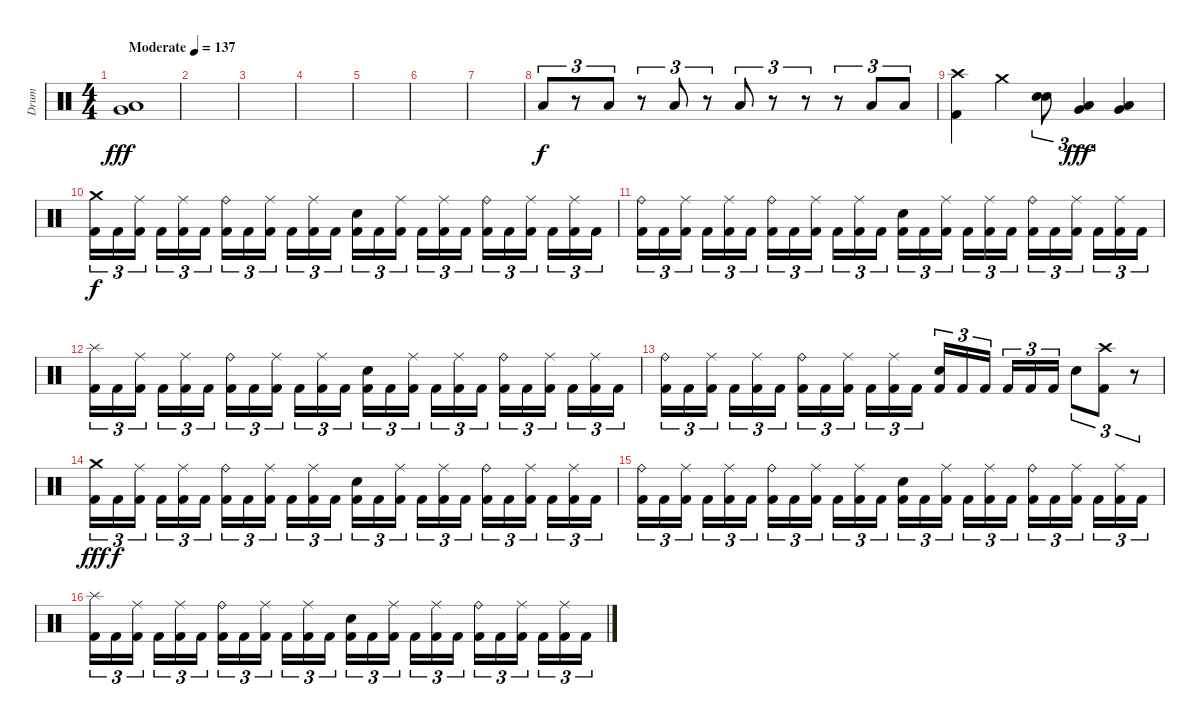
\track ("Drum" "Drum") {instrument percussion}
\staff {score}
\articulation defaults
\ts (4 4)
\tempo (137 "Moderate")
\clef neutral
\ks c
("Very Low Tom (hit)" "Low Floor Tom (hit)").1{dy fff} |
|
|
|
|
|
|
"Low Floor Tom (hit)".8{tu (3 2) dy f} r.8{tu (3 2)} "Low Floor Tom (hit)".8{tu (3 2)} r.8{tu (3 2)} "Low Floor Tom (hit)".8{tu (3 2)} r.8{tu (3 2)} "Low Floor Tom (hit)".8{tu (3 2)} r.8{tu (3 2)} r.8{tu (3 2)} r.8{tu (3 2)} "Low Floor Tom (hit)".8{tu (3 2)} "Low Floor Tom (hit)".8{tu (3 2)} |
("Crash high (hit)" "Kick (hit) 2").4 "Crash medium (hit)".4 ("Electric Snare (hit)" "Electric Snare (hit)").8{tu (3 2)} ("Very Low Tom (hit)" "Low Floor Tom (hit)").4{tu (3 2) dy fff} ("Very Low Tom (hit)" "Low Floor Tom (hit)").4 |
("Crash medium (hit)" "Kick (hit) 2").16{tu (3 2) dy f} "Kick (hit) 2".16{tu (3 2)} ("Ride (middle)" "Kick (hit) 2").16{tu (3 2) beam splitsecondary} "Kick (hit) 2".16{tu (3 2)} ("Ride (middle)" "Kick (hit) 2").16{tu (3 2)} "Kick (hit) 2".16{tu (3 2)} ("Ride (bell)" "Kick (hit) 2").16{tu (3 2)} "Kick (hit) 2".16{tu (3 2)} ("Ride (middle)" "Kick (hit) 2").16{tu (3 2) beam splitsecondary} "Kick (hit) 2".16{tu (3 2)} ("Ride (middle)" "Kick (hit) 2").16{tu (3 2)} "Kick (hit) 2".16{tu (3 2)} ("Electric Snare (hit)" "Kick (hit) 2").16{tu (3 2)} "Kick (hit) 2".16{tu (3 2)} ("Ride (middle)" "Kick (hit) 2").16{tu (3 2) beam splitsecondary} "Kick (hit) 2".16{tu (3 2)} ("Ride (middle)" "Kick (hit) 2").16{tu (3 2)} "Kick (hit) 2".16{tu (3 2)} ("Ride (bell)" "Kick (hit) 2").16{tu (3 2)} "Kick (hit) 2".16{tu (3 2)} ("Ride (middle)" "Kick (hit) 2").16{tu (3 2) beam splitsecondary} "Kick (hit) 2".16{tu (3 2)} ("Ride (middle)" "Kick (hit) 2").16{tu (3 2)} "Kick (hit) 2".16{tu (3 2)} |
("Ride (bell)" "Kick (hit) 2").16{tu (3 2)} "Kick (hit) 2".16{tu (3 2)} ("Ride (middle)" "Kick (hit) 2").16{tu (3 2) beam splitsecondary} "Kick (hit) 2".16{tu (3 2)} ("Ride (middle)" "Kick (hit) 2").16{tu (3 2)} "Kick (hit) 2".16{tu (3 2)} ("Ride (bell)" "Kick (hit) 2").16{tu (3 2)} "Kick (hit) 2".16{tu (3 2)} ("Ride (middle)" "Kick (hit) 2").16{tu (3 2) beam splitsecondary} "Kick (hit) 2".16{tu (3 2)} ("Ride (middle)" "Kick (hit) 2").16{tu (3 2)} "Kick (hit) 2".16{tu (3 2)} ("Electric Snare (hit)" "Kick (hit) 2").16{tu (3 2)} "Kick (hit) 2".16{tu (3 2)} ("Ride (middle)" "Kick (hit) 2").16{tu (3 2) beam splitsecondary} "Kick (hit) 2".16{tu (3 2)} ("Ride (middle)" "Kick (hit) 2").16{tu (3 2)} "Kick (hit) 2".16{tu (3 2)} ("Ride (bell)" "Kick (hit) 2").16{tu (3 2)} "Kick (hit) 2".16{tu (3 2)} ("Ride (middle)" "Kick (hit) 2").16{tu (3 2) beam splitsecondary} "Kick (hit) 2".16{tu (3 2)} ("Ride (middle)" "Kick (hit) 2").16{tu (3 2)} "Kick (hit) 2".16{tu (3 2)} |
("Splash (hit)" "Kick (hit) 2").16{tu (3 2)} "Kick (hit) 2".16{tu (3 2)} ("Ride (middle)" "Kick (hit) 2").16{tu (3 2) beam splitsecondary} "Kick (hit) 2".16{tu (3 2)} ("Ride (middle)" "Kick (hit) 2").16{tu (3 2)} "Kick (hit) 2".16{tu (3 2)} ("Ride (bell)" "Kick (hit) 2").16{tu (3 2)} "Kick (hit) 2".16{tu (3 2)} ("Ride (middle)" "Kick (hit) 2").16{tu (3 2) beam splitsecondary} "Kick (hit) 2".16{tu (3 2)} ("Ride (middle)" "Kick (hit) 2").16{tu (3 2)} "Kick (hit) 2".16{tu (3 2)} ("Electric Snare (hit)" "Kick (hit) 2").16{tu (3 2)} "Kick (hit) 2".16{tu (3 2)} ("Ride (middle)" "Kick (hit) 2").16{tu (3 2) beam splitsecondary} "Kick (hit) 2".16{tu (3 2)} ("Ride (middle)" "Kick (hit) 2").16{tu (3 2)} "Kick (hit) 2".16{tu (3 2)} ("Ride (bell)" "Kick (hit) 2").16{tu (3 2)} "Kick (hit) 2".16{tu (3 2)} ("Ride (middle)" "Kick (hit) 2").16{tu (3 2) beam splitsecondary} "Kick (hit) 2".16{tu (3 2)} ("Ride (middle)" "Kick (hit) 2").16{tu (3 2)} "Kick (hit) 2".16{tu (3 2)} |
("Ride (bell)" "Kick (hit) 2").16{tu (3 2)} "Kick (hit) 2".16{tu (3 2)} ("Ride (middle)" "Kick (hit) 2").16{tu (3 2) beam splitsecondary} "Kick (hit) 2".16{tu (3 2)} ("Ride (middle)" "Kick (hit) 2").16{tu (3 2)} "Kick (hit) 2".16{tu (3 2)} ("Ride (bell)" "Kick (hit) 2").16{tu (3 2)} "Kick (hit) 2".16{tu (3 2)} ("Ride (middle)" "Kick (hit) 2").16{tu (3 2) beam splitsecondary} "Kick (hit) 2".16{tu (3 2)} ("Ride (middle)" "Kick (hit) 2").16{tu (3 2)} "Kick (hit) 2".16{tu (3 2)} ("Electric Snare (hit)" "Kick (hit) 2").16{tu (3 2)} "Kick (hit) 2".16{tu (3 2)} "Kick (hit) 2".16{tu (3 2) beam splitsecondary} "Kick (hit) 2".16{tu (3 2)} "Kick (hit) 2".16{tu (3 2)} "Kick (hit) 2".16{tu (3 2)} "Electric Snare (hit)".8{tu (3 2)} ("Crash high (hit)" "Kick (hit) 2").8{tu (3 2)} r.8{tu (3 2)} |
("Crash medium (hit)" "Kick (hit) 2").16{tu (3 2) dy fff} "Kick (hit) 2".16{tu (3 2) dy f} ("Ride (middle)" "Kick (hit) 2").16{tu (3 2) beam splitsecondary} "Kick (hit) 2".16{tu (3 2)} ("Ride (middle)" "Kick (hit) 2").16{tu (3 2)} "Kick (hit) 2".16{tu (3 2)} ("Ride (bell)" "Kick (hit) 2").16{tu (3 2)} "Kick (hit) 2".16{tu (3 2)} ("Ride (middle)" "Kick (hit) 2").16{tu (3 2) beam splitsecondary} "Kick (hit) 2".16{tu (3 2)} ("Ride (middle)" "Kick (hit) 2").16{tu (3 2)} "Kick (hit) 2".16{tu (3 2)} ("Electric Snare (hit)" "Kick (hit) 2").16{tu (3 2)} "Kick (hit) 2".16{tu (3 2)} ("Ride (middle)" "Kick (hit) 2").16{tu (3 2) beam splitsecondary} "Kick (hit) 2".16{tu (3 2)} ("Ride (middle)" "Kick (hit) 2").16{tu (3 2)} "Kick (hit) 2".16{tu (3 2)} ("Ride (bell)" "Kick (hit) 2").16{tu (3 2)} "Kick (hit) 2".16{tu (3 2)} ("Ride (middle)" "Kick (hit) 2").16{tu (3 2) beam splitsecondary} "Kick (hit) 2".16{tu (3 2)} ("Ride (middle)" "Kick (hit) 2").16{tu (3 2)} "Kick (hit) 2".16{tu (3 2)} |
("Ride (bell)" "Kick (hit) 2").16{tu (3 2)} "Kick (hit) 2".16{tu (3 2)} ("Ride (middle)" "Kick (hit) 2").16{tu (3 2) beam splitsecondary} "Kick (hit) 2".16{tu (3 2)} ("Ride (middle)" "Kick (hit) 2").16{tu (3 2)} "Kick (hit) 2".16{tu (3 2)} ("Ride (bell)" "Kick (hit) 2").16{tu (3 2)} "Kick (hit) 2".16{tu (3 2)} ("Ride (middle)" "Kick (hit) 2").16{tu (3 2) beam splitsecondary} "Kick (hit) 2".16{tu (3 2)} ("Ride (middle)" "Kick (hit) 2").16{tu (3 2)} "Kick (hit) 2".16{tu (3 2)} ("Electric Snare (hit)" "Kick (hit) 2").16{tu (3 2)} "Kick (hit) 2".16{tu (3 2)} ("Ride (middle)" "Kick (hit) 2").16{tu (3 2) beam splitsecondary} "Kick (hit) 2".16{tu (3 2)} ("Ride (middle)" "Kick (hit) 2").16{tu (3 2)} "Kick (hit) 2".16{tu (3 2)} ("Ride (bell)" "Kick (hit) 2").16{tu (3 2)} "Kick (hit) 2".16{tu (3 2)} ("Ride (middle)" "Kick (hit) 2").16{tu (3 2) beam splitsecondary} "Kick (hit) 2".16{tu (3 2)} ("Ride (middle)" "Kick (hit) 2").16{tu (3 2)} "Kick (hit) 2".16{tu (3 2)} |
("Splash (hit)" "Kick (hit) 2").16{tu (3 2)} "Kick (hit) 2".16{tu (3 2)} ("Ride (middle)" "Kick (hit) 2").16{tu (3 2) beam splitsecondary} "Kick (hit) 2".16{tu (3 2)} ("Ride (middle)" "Kick (hit) 2").16{tu (3 2)} "Kick (hit) 2".16{tu (3 2)} ("Ride (bell)" "Kick (hit) 2").16{tu (3 2)} "Kick (hit) 2".16{tu (3 2)} ("Ride (middle)" "Kick (hit) 2").16{tu (3 2) beam splitsecondary} "Kick (hit) 2".16{tu (3 2)} ("Ride (middle)" "Kick (hit) 2").16{tu (3 2)} "Kick (hit) 2".16{tu (3 2)} ("Electric Snare (hit)" "Kick (hit) 2").16{tu (3 2)} "Kick (hit) 2".16{tu (3 2)} ("Ride (middle)" "Kick (hit) 2").16{tu (3 2) beam splitsecondary} "Kick (hit) 2".16{tu (3 2)} ("Ride (middle)" "Kick (hit) 2").16{tu (3 2)} "Kick (hit) 2".16{tu (3 2)} ("Ride (bell)" "Kick (hit) 2").16{tu (3 2)} "Kick (hit) 2".16{tu (3 2)} ("Ride (middle)" "Kick (hit) 2").16{tu (3 2) beam splitsecondary} "Kick (hit) 2".16{tu (3 2)} ("Ride (middle)" "Kick (hit) 2").16{tu (3 2)} "Kick (hit) 2".16{tu (3 2)}
